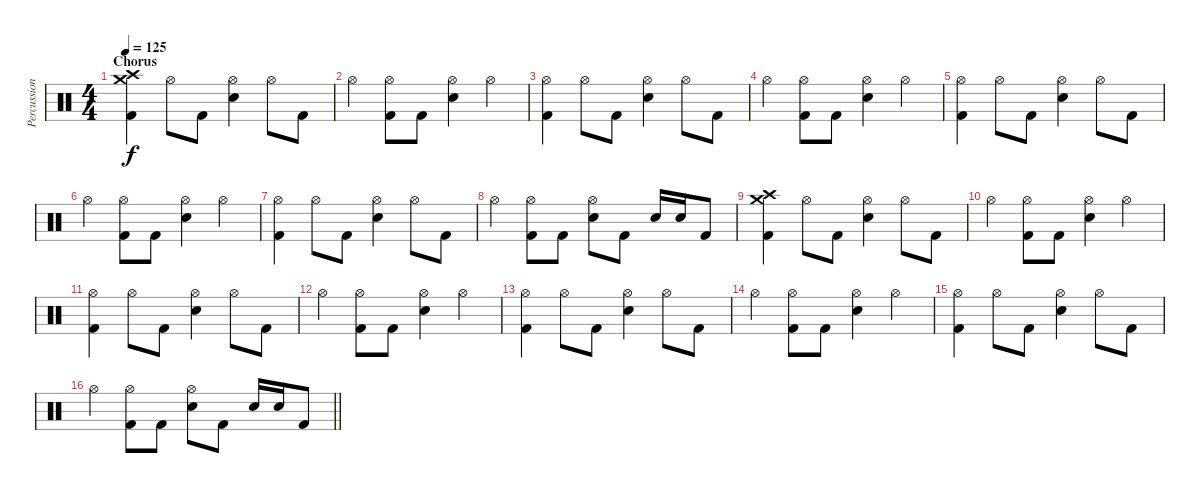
\track ("Percussion" "Percussion") {instrument percussion}
\staff {score}
\articulation defaults
\ts (4 4)
\section ("" "Chorus")
\tempo 125
\clef neutral
\ks c
("Crash high (hit)" "Crash medium (hit)" "Kick (hit) 2").4{dy f} "Hi-Hat (open)".8 "Kick (hit) 2".8 ("Hi-Hat (open)" "Electric Snare (hit)").4 "Hi-Hat (open)".8 "Kick (hit) 2".8 |
"Hi-Hat (open)".4 ("Hi-Hat (open)" "Kick (hit) 2").8 "Kick (hit) 2".8 ("Hi-Hat (open)" "Electric Snare (hit)").4 "Hi-Hat (open)".4 |
("Hi-Hat (open)" "Kick (hit) 2").4 "Hi-Hat (open)".8 "Kick (hit) 2".8 ("Hi-Hat (open)" "Electric Snare (hit)").4 "Hi-Hat (open)".8 "Kick (hit) 2".8 |
"Hi-Hat (open)".4 ("Hi-Hat (open)" "Kick (hit) 2").8 "Kick (hit) 2".8 ("Hi-Hat (open)" "Electric Snare (hit)").4 "Hi-Hat (open)".4 |
("Hi-Hat (open)" "Kick (hit) 2").4 "Hi-Hat (open)".8 "Kick (hit) 2".8 ("Hi-Hat (open)" "Electric Snare (hit)").4 "Hi-Hat (open)".8 "Kick (hit) 2".8 |
"Hi-Hat (open)".4 ("Hi-Hat (open)" "Kick (hit) 2").8 "Kick (hit) 2".8 ("Hi-Hat (open)" "Electric Snare (hit)").4 "Hi-Hat (open)".4 |
("Hi-Hat (open)" "Kick (hit) 2").4 "Hi-Hat (open)".8 "Kick (hit) 2".8 ("Hi-Hat (open)" "Electric Snare (hit)").4 "Hi-Hat (open)".8 "Kick (hit) 2".8 |
"Hi-Hat (open)".4 ("Hi-Hat (open)" "Kick (hit) 2").8 "Kick (hit) 2".8 ("Hi-Hat (open)" "Electric Snare (hit)").8 "Kick (hit) 2".8 "Electric Snare (hit)".16 "Electric Snare (hit)".16 "Kick (hit) 2".8 |
("Crash high (hit)" "Crash medium (hit)" "Kick (hit) 2").4 "Hi-Hat (open)".8 "Kick (hit) 2".8 ("Hi-Hat (open)" "Electric Snare (hit)").4 "Hi-Hat (open)".8 "Kick (hit) 2".8 |
"Hi-Hat (open)".4 ("Hi-Hat (open)" "Kick (hit) 2").8 "Kick (hit) 2".8 ("Hi-Hat (open)" "Electric Snare (hit)").4 "Hi-Hat (open)".4 |
("Hi-Hat (open)" "Kick (hit) 2").4 "Hi-Hat (open)".8 "Kick (hit) 2".8 ("Hi-Hat (open)" "Electric Snare (hit)").4 "Hi-Hat (open)".8 "Kick (hit) 2".8 |
"Hi-Hat (open)".4 ("Hi-Hat (open)" "Kick (hit) 2").8 "Kick (hit) 2".8 ("Hi-Hat (open)" "Electric Snare (hit)").4 "Hi-Hat (open)".4 |
("Hi-Hat (open)" "Kick (hit) 2").4 "Hi-Hat (open)".8 "Kick (hit) 2".8 ("Hi-Hat (open)" "Electric Snare (hit)").4 "Hi-Hat (open)".8 "Kick (hit) 2".8 |
"Hi-Hat (open)".4 ("Hi-Hat (open)" "Kick (hit) 2").8 "Kick (hit) 2".8 ("Hi-Hat (open)" "Electric Snare (hit)").4 "Hi-Hat (open)".4 |
("Hi-Hat (open)" "Kick (hit) 2").4 "Hi-Hat (open)".8 "Kick (hit) 2".8 ("Hi-Hat (open)" "Electric Snare (hit)").4 "Hi-Hat (open)".8 "Kick (hit) 2".8 |
\barLineRight lightlight "Hi-Hat (open)".4
("Hi-Hat (open)" "Kick (hit) 2").8 "Kick (hit) 2".8 ("Hi-Hat (open)" "Electric Snare (hit)").8 "Kick (hit) 2".8 "Electric Snare (hit)".16 "Electric Snare (hit)".16 "Kick (hit) 2".8
